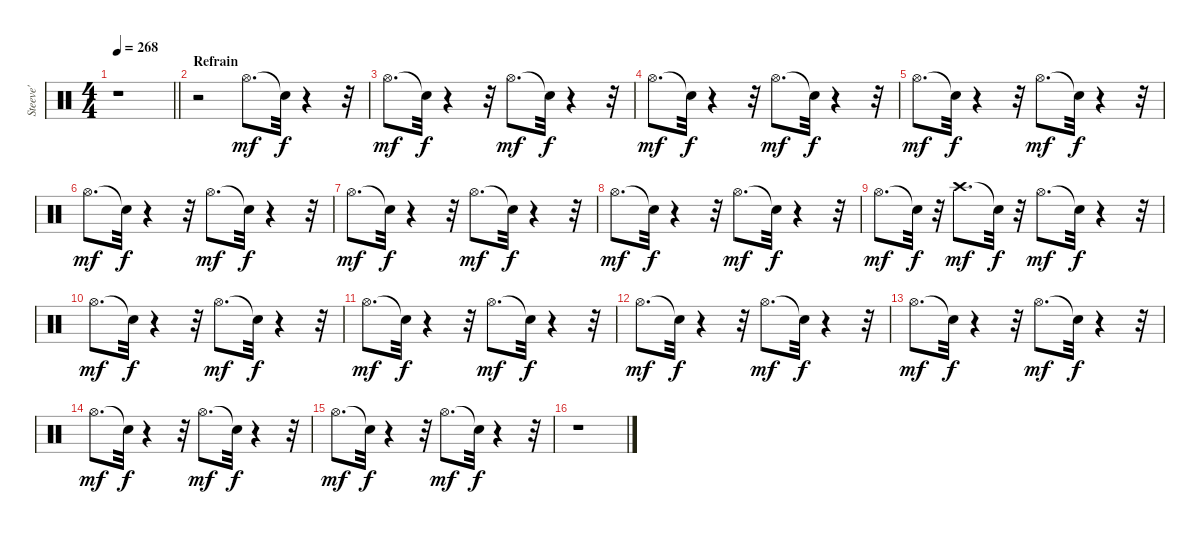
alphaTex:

\track ("Steeve'" "Steeve'") {instrument percussion}
\staff {score}
\articulation defaults
\ts (4 4)
\tempo 268
\clef neutral
\barLineRight lightlight
\ks c
r.1{dy mf} |
\section ("" "Refrain")
r.2 "Hi-Hat (open)".8{d} "Snare (hit)"{t}.32{dy f} r.4 r.32 |
"Hi-Hat (open)".8{d dy mf} "Snare (hit)"{t}.32{dy f} r.4 r.32 "Hi-Hat (open)".8{d dy mf} "Snare (hit)"{t}.32{dy f} r.4 r.32 |
"Hi-Hat (open)".8{d dy mf} "Snare (hit)"{t}.32{dy f} r.4 r.32 "Hi-Hat (open)".8{d dy mf} "Snare (hit)"{t}.32{dy f} r.4 r.32 |
"Hi-Hat (open)".8{d dy mf} "Snare (hit)"{t}.32{dy f} r.4 r.32 "Hi-Hat (open)".8{d dy mf} "Snare (hit)"{t}.32{dy f} r.4 r.32 |
"Hi-Hat (open)".8{d dy mf} "Snare (hit)"{t}.32{dy f} r.4 r.32 "Hi-Hat (open)".8{d dy mf} "Snare (hit)"{t}.32{dy f} r.4 r.32 |
"Hi-Hat (open)".8{d dy mf} "Snare (hit)"{t}.32{dy f} r.4 r.32 "Hi-Hat (open)".8{d dy mf} "Snare (hit)"{t}.32{dy f} r.4 r.32 |
"Hi-Hat (open)".8{d dy mf} "Snare (hit)"{t}.32{dy f} r.4 r.32 "Hi-Hat (open)".8{d dy mf} "Snare (hit)"{t}.32{dy f} r.4 r.32 |
"Hi-Hat (open)".8{d dy mf} "Snare (hit)"{t}.32{dy f} r.32 "Crash high (hit)".8{d dy mf} "Snare (hit)"{t}.32{dy f} r.32 "Hi-Hat (open)".8{d dy mf} "Snare (hit)"{t}.32{dy f} r.4 r.32 |
"Hi-Hat (open)".8{d dy mf} "Snare (hit)"{t}.32{dy f} r.4 r.32 "Hi-Hat (open)".8{d dy mf} "Snare (hit)"{t}.32{dy f} r.4 r.32 |
"Hi-Hat (open)".8{d dy mf} "Snare (hit)"{t}.32{dy f} r.4 r.32 "Hi-Hat (open)".8{d dy mf} "Snare (hit)"{t}.32{dy f} r.4 r.32 |
"Hi-Hat (open)".8{d dy mf} "Snare (hit)"{t}.32{dy f} r.4 r.32 "Hi-Hat (open)".8{d dy mf} "Snare (hit)"{t}.32{dy f} r.4 r.32 |
"Hi-Hat (open)".8{d dy mf} "Snare (hit)"{t}.32{dy f} r.4 r.32 "Hi-Hat (open)".8{d dy mf} "Snare (hit)"{t}.32{dy f} r.4 r.32 |
"Hi-Hat (open)".8{d dy mf} "Snare (hit)"{t}.32{dy f} r.4 r.32 "Hi-Hat (open)".8{d dy mf} "Snare (hit)"{t}.32{dy f} r.4 r.32 |
"Hi-Hat (open)".8{d dy mf} "Snare (hit)"{t}.32{dy f} r.4 r.32 "Hi-Hat (open)".8{d dy mf} "Snare (hit)"{t}.32{dy f} r.4 r.32 |
r.1
